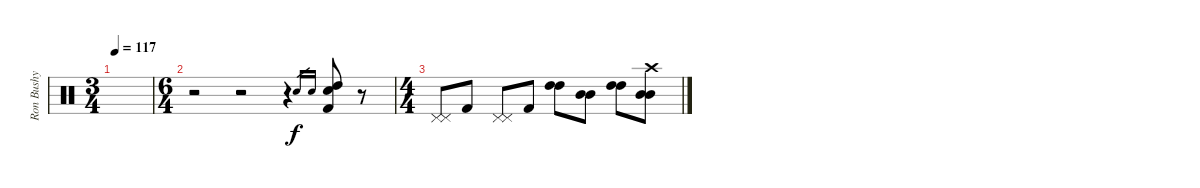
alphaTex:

\track ("Ron Bushy" "Ron Bushy") {instrument percussion}
\staff {score}
\articulation defaults
\ts (3 4)
\tempo 117
\clef neutral
\ks c
|
\ts (6 4)
r.2 r.2 r.4 "Snare (hit) 2".16{gr} "Snare (hit) 2".16{gr} ("Kick (hit) 2" "High Tom (hit)" "Electric Snare (hit)").8 r.8 |
\ts (4 4)
("Pedal Hi-Hat (hit)" "Pedal Hi-Hat (hit)").8 "Kick (hit) 2".8 ("Pedal Hi-Hat (hit)" "Pedal Hi-Hat (hit)").8 "Kick (hit) 2".8 ("High Tom (hit)" "High Tom (hit)").8 ("Mid Tom (hit)" "Mid Tom (hit)").8 ("High Tom (hit)" "High Tom (hit)").8 ("Crash high (hit)" "Mid Tom (hit)" "Mid Tom (hit)").8
